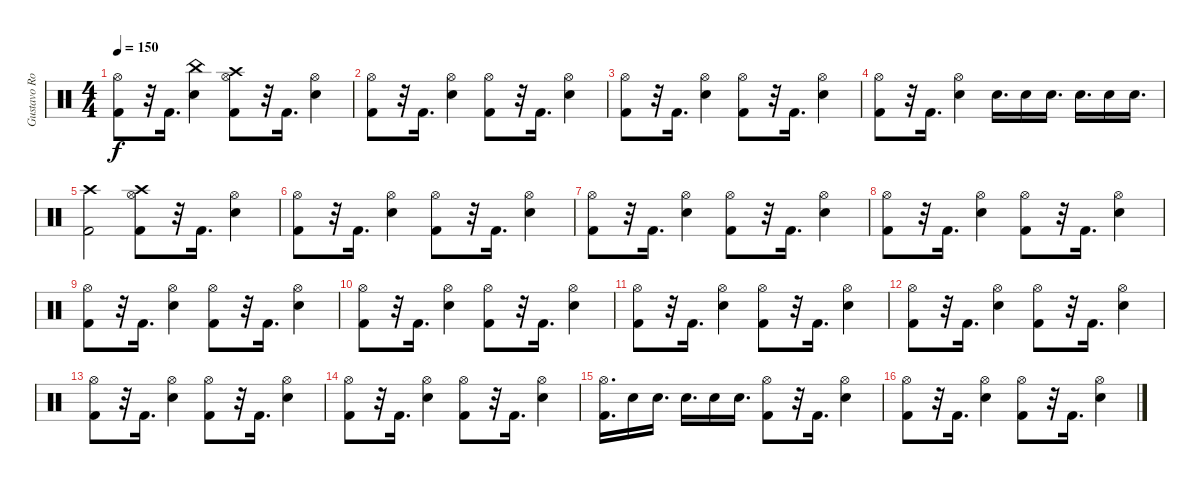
\track ("Gustavo Rowek" "Gustavo Ro") {instrument percussion}
\staff {score}
\articulation defaults
\ts (4 4)
\tempo 150
\clef neutral
\ks c
("Hi-Hat (open)" "Kick (hit) 2").8{dy f} r.32 "Kick (hit) 2".16{d} ("China (hit)" "Electric Snare (hit)").4 ("Crash high (hit)" "Hi-Hat (open)" "Kick (hit) 2").8 r.32 "Kick (hit) 2".16{d} ("Hi-Hat (open)" "Electric Snare (hit)").4 |
("Hi-Hat (open)" "Kick (hit) 2").8 r.32 "Kick (hit) 2".16{d} ("Hi-Hat (open)" "Electric Snare (hit)").4 ("Hi-Hat (open)" "Kick (hit) 2").8 r.32 "Kick (hit) 2".16{d} ("Hi-Hat (open)" "Electric Snare (hit)").4 |
("Hi-Hat (open)" "Kick (hit) 2").8 r.32 "Kick (hit) 2".16{d} ("Hi-Hat (open)" "Electric Snare (hit)").4 ("Hi-Hat (open)" "Kick (hit) 2").8 r.32 "Kick (hit) 2".16{d} ("Hi-Hat (open)" "Electric Snare (hit)").4 |
("Hi-Hat (open)" "Kick (hit) 2").8 r.32 "Kick (hit) 2".16{d} ("Hi-Hat (open)" "Electric Snare (hit)").4 "Electric Snare (hit)".16{d} "Electric Snare (hit)".16 "Electric Snare (hit)".16{d} "Electric Snare (hit)".16{d} "Electric Snare (hit)".16 "Electric Snare (hit)".16{d} |
("Crash high (hit)" "Kick (hit) 2").2 ("Crash high (hit)" "Hi-Hat (open)" "Kick (hit) 2").8 r.32 "Kick (hit) 2".16{d} ("Hi-Hat (open)" "Electric Snare (hit)").4 |
("Hi-Hat (open)" "Kick (hit) 2").8 r.32 "Kick (hit) 2".16{d} ("Hi-Hat (open)" "Electric Snare (hit)").4 ("Hi-Hat (open)" "Kick (hit) 2").8 r.32 "Kick (hit) 2".16{d} ("Hi-Hat (open)" "Electric Snare (hit)").4 |
("Hi-Hat (open)" "Kick (hit) 2").8 r.32 "Kick (hit) 2".16{d} ("Hi-Hat (open)" "Electric Snare (hit)").4 ("Hi-Hat (open)" "Kick (hit) 2").8 r.32 "Kick (hit) 2".16{d} ("Hi-Hat (open)" "Electric Snare (hit)").4 |
("Hi-Hat (open)" "Kick (hit) 2").8 r.32 "Kick (hit) 2".16{d} ("Hi-Hat (open)" "Electric Snare (hit)").4 ("Hi-Hat (open)" "Kick (hit) 2").8 r.32 "Kick (hit) 2".16{d} ("Hi-Hat (open)" "Electric Snare (hit)").4 |
("Hi-Hat (open)" "Kick (hit) 2").8 r.32 "Kick (hit) 2".16{d} ("Hi-Hat (open)" "Electric Snare (hit)").4 ("Hi-Hat (open)" "Kick (hit) 2").8 r.32 "Kick (hit) 2".16{d} ("Hi-Hat (open)" "Electric Snare (hit)").4 |
("Hi-Hat (open)" "Kick (hit) 2").8 r.32 "Kick (hit) 2".16{d} ("Hi-Hat (open)" "Electric Snare (hit)").4 ("Hi-Hat (open)" "Kick (hit) 2").8 r.32 "Kick (hit) 2".16{d} ("Hi-Hat (open)" "Electric Snare (hit)").4 |
("Hi-Hat (open)" "Kick (hit) 2").8 r.32 "Kick (hit) 2".16{d} ("Hi-Hat (open)" "Electric Snare (hit)").4 ("Hi-Hat (open)" "Kick (hit) 2").8 r.32 "Kick (hit) 2".16{d} ("Hi-Hat (open)" "Electric Snare (hit)").4 |
("Hi-Hat (open)" "Kick (hit) 2").8 r.32 "Kick (hit) 2".16{d} ("Hi-Hat (open)" "Electric Snare (hit)").4 ("Hi-Hat (open)" "Kick (hit) 2").8 r.32 "Kick (hit) 2".16{d} ("Hi-Hat (open)" "Electric Snare (hit)").4 |
("Hi-Hat (open)" "Kick (hit) 2").8 r.32 "Kick (hit) 2".16{d} ("Hi-Hat (open)" "Electric Snare (hit)").4 ("Hi-Hat (open)" "Kick (hit) 2").8 r.32 "Kick (hit) 2".16{d} ("Hi-Hat (open)" "Electric Snare (hit)").4 |
("Hi-Hat (open)" "Kick (hit) 2").8 r.32 "Kick (hit) 2".16{d} ("Hi-Hat (open)" "Electric Snare (hit)").4 ("Hi-Hat (open)" "Kick (hit) 2").8 r.32 "Kick (hit) 2".16{d} ("Hi-Hat (open)" "Electric Snare (hit)").4 |
("Hi-Hat (open)" "Kick (hit) 2").16{d} "Electric Snare (hit)".16 "Electric Snare (hit)".16{d} "Electric Snare (hit)".16{d} "Electric Snare (hit)".16 "Electric Snare (hit)".16{d} ("Hi-Hat (open)" "Kick (hit) 2").8 r.32 "Kick (hit) 2".16{d} ("Hi-Hat (open)" "Electric Snare (hit)").4 |
("Hi-Hat (open)" "Kick (hit) 2").8 r.32 "Kick (hit) 2".16{d} ("Hi-Hat (open)" "Electric Snare (hit)").4 ("Hi-Hat (open)" "Kick (hit) 2").8 r.32 "Kick (hit) 2".16{d} ("Hi-Hat (open)" "Electric Snare (hit)").4
